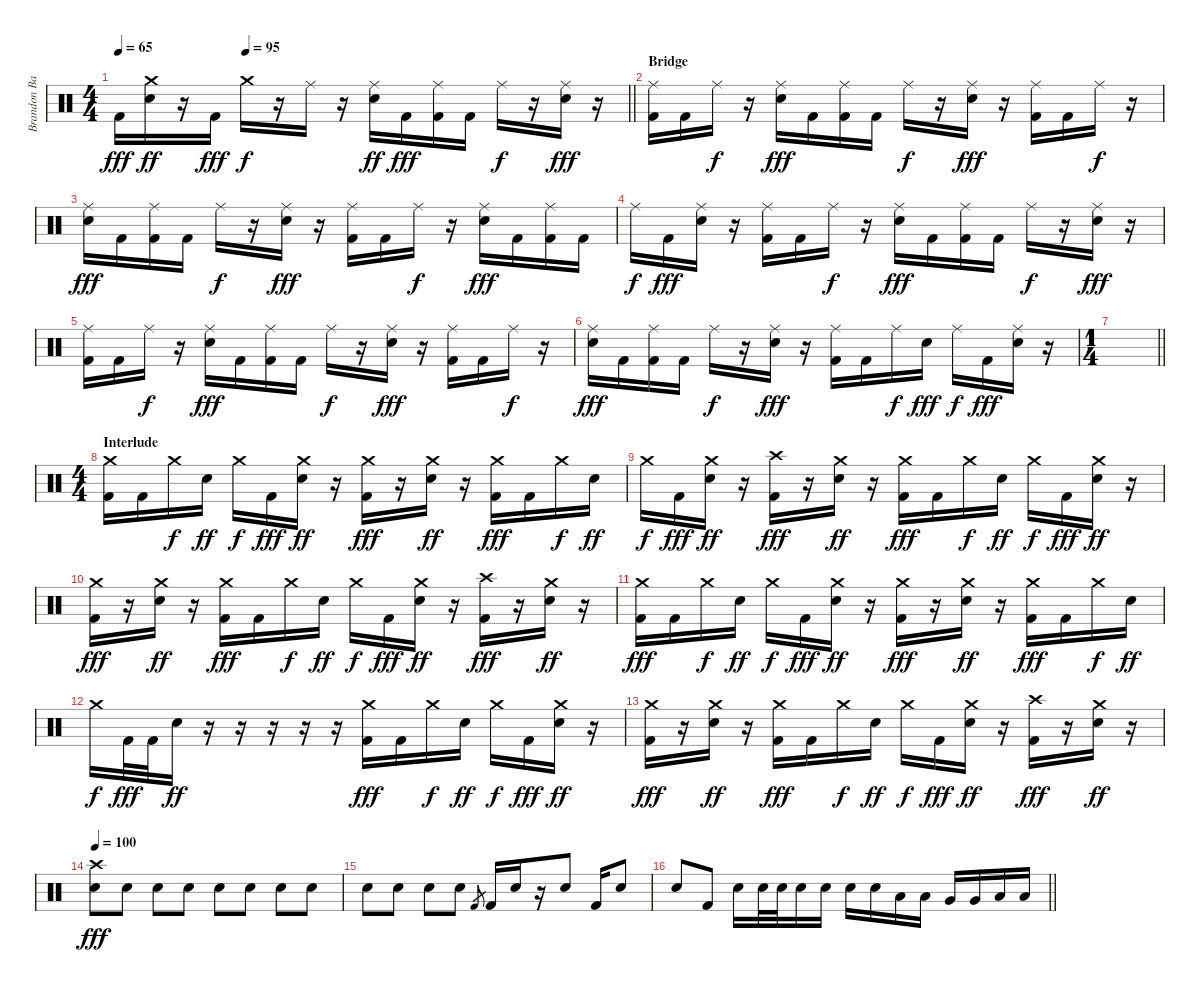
\track ("Brandon Barnes" "Brandon Ba") {instrument percussion}
\staff {score}
\articulation defaults
\ts (4 4)
\tempo 65
\tempo (95 0.25)
\clef neutral
\barLineRight lightlight
\ks c "Kick (hit) 2".16{dy fff}
("Crash medium (hit)" "Electric Snare (hit)").16{dy ff} r.16 "Kick (hit) 2".16{dy fff} "Crash medium (hit)".16{dy f} r.16 "Ride (middle)".16 r.16 ("Ride (middle)" "Electric Snare (hit)").16{dy ff} "Kick (hit) 2".16{dy fff} ("Ride (middle)" "Kick (hit) 2").16 "Kick (hit) 2".16 "Ride (middle)".16{dy f} r.16 ("Ride (middle)" "Electric Snare (hit)").16{dy fff} r.16 |
\section ("" "Bridge")
("Ride (middle)" "Kick (hit) 2").16 "Kick (hit) 2".16 "Ride (middle)".16{dy f} r.16 ("Ride (middle)" "Electric Snare (hit)").16{dy fff} "Kick (hit) 2".16 ("Ride (middle)" "Kick (hit) 2").16 "Kick (hit) 2".16 "Ride (middle)".16{dy f} r.16 ("Ride (middle)" "Electric Snare (hit)").16{dy fff} r.16 ("Ride (middle)" "Kick (hit) 2").16 "Kick (hit) 2".16 "Ride (middle)".16{dy f} r.16 |
("Ride (middle)" "Electric Snare (hit)").16{dy fff} "Kick (hit) 2".16 ("Ride (middle)" "Kick (hit) 2").16 "Kick (hit) 2".16 "Ride (middle)".16{dy f} r.16 ("Ride (middle)" "Electric Snare (hit)").16{dy fff} r.16 ("Ride (middle)" "Kick (hit) 2").16 "Kick (hit) 2".16 "Ride (middle)".16{dy f} r.16 ("Ride (middle)" "Electric Snare (hit)").16{dy fff} "Kick (hit) 2".16 ("Ride (middle)" "Kick (hit) 2").16 "Kick (hit) 2".16 |
"Ride (middle)".16{dy f} "Kick (hit) 2".16{dy fff} ("Ride (middle)" "Electric Snare (hit)").16 r.16 ("Ride (middle)" "Kick (hit) 2").16 "Kick (hit) 2".16 "Ride (middle)".16{dy f} r.16 ("Ride (middle)" "Electric Snare (hit)").16{dy fff} "Kick (hit) 2".16 ("Ride (middle)" "Kick (hit) 2").16 "Kick (hit) 2".16 "Ride (middle)".16{dy f} r.16 ("Ride (middle)" "Electric Snare (hit)").16{dy fff} r.16 |
("Ride (middle)" "Kick (hit) 2").16 "Kick (hit) 2".16 "Ride (middle)".16{dy f} r.16 ("Ride (middle)" "Electric Snare (hit)").16{dy fff} "Kick (hit) 2".16 ("Ride (middle)" "Kick (hit) 2").16 "Kick (hit) 2".16 "Ride (middle)".16{dy f} r.16 ("Ride (middle)" "Electric Snare (hit)").16{dy fff} r.16 ("Ride (middle)" "Kick (hit) 2").16 "Kick (hit) 2".16 "Ride (middle)".16{dy f} r.16 |
("Ride (middle)" "Electric Snare (hit)").16{dy fff} "Kick (hit) 2".16 ("Ride (middle)" "Kick (hit) 2").16 "Kick (hit) 2".16 "Ride (middle)".16{dy f} r.16 ("Ride (middle)" "Electric Snare (hit)").16{dy fff} r.16 ("Ride (middle)" "Kick (hit) 2").16 "Kick (hit) 2".16 "Ride (middle)".16{dy f} "Electric Snare (hit)".16{dy fff} "Ride (middle)".16{dy f} "Kick (hit) 2".16{dy fff} ("Ride (middle)" "Electric Snare (hit)").16 r.16 |
\ts (1 4)
\barLineRight lightlight
|
\ts (4 4)
\section ("" "Interlude")
("Crash medium (hit)" "Kick (hit) 2").16 "Kick (hit) 2".16 "Crash medium (hit)".16{dy f} "Electric Snare (hit)".16{dy ff} "Crash medium (hit)".16{dy f} "Kick (hit) 2".16{dy fff} ("Crash medium (hit)" "Electric Snare (hit)").16{dy ff} r.16 ("Crash medium (hit)" "Kick (hit) 2").16{dy fff} r.16 ("Crash medium (hit)" "Electric Snare (hit)").16{dy ff} r.16 ("Crash medium (hit)" "Kick (hit) 2").16{dy fff} "Kick (hit) 2".16 "Crash medium (hit)".16{dy f} "Electric Snare (hit)".16{dy ff} |
"Crash medium (hit)".16{dy f} "Kick (hit) 2".16{dy fff} ("Crash medium (hit)" "Electric Snare (hit)").16{dy ff} r.16 ("Crash high (hit)" "Kick (hit) 2").16{dy fff} r.16 ("Crash medium (hit)" "Electric Snare (hit)").16{dy ff} r.16 ("Crash medium (hit)" "Kick (hit) 2").16{dy fff} "Kick (hit) 2".16 "Crash medium (hit)".16{dy f} "Electric Snare (hit)".16{dy ff} "Crash medium (hit)".16{dy f} "Kick (hit) 2".16{dy fff} ("Crash medium (hit)" "Electric Snare (hit)").16{dy ff} r.16 |
("Crash medium (hit)" "Kick (hit) 2").16{dy fff} r.16 ("Crash medium (hit)" "Electric Snare (hit)").16{dy ff} r.16 ("Crash medium (hit)" "Kick (hit) 2").16{dy fff} "Kick (hit) 2".16 "Crash medium (hit)".16{dy f} "Electric Snare (hit)".16{dy ff} "Crash medium (hit)".16{dy f} "Kick (hit) 2".16{dy fff} ("Crash medium (hit)" "Electric Snare (hit)").16{dy ff} r.16 ("Crash high (hit)" "Kick (hit) 2").16{dy fff} r.16 ("Crash medium (hit)" "Electric Snare (hit)").16{dy ff} r.16 |
("Crash medium (hit)" "Kick (hit) 2").16{dy fff} "Kick (hit) 2".16 "Crash medium (hit)".16{dy f} "Electric Snare (hit)".16{dy ff} "Crash medium (hit)".16{dy f} "Kick (hit) 2".16{dy fff} ("Crash medium (hit)" "Electric Snare (hit)").16{dy ff} r.16 ("Crash medium (hit)" "Kick (hit) 2").16{dy fff} r.16 ("Crash medium (hit)" "Electric Snare (hit)").16{dy ff} r.16 ("Crash medium (hit)" "Kick (hit) 2").16{dy fff} "Kick (hit) 2".16 "Crash medium (hit)".16{dy f} "Electric Snare (hit)".16{dy ff} |
"Crash medium (hit)".16{dy f} "Kick (hit) 2".32{dy fff} "Kick (hit) 2".32 "Electric Snare (hit)".16{dy ff} r.16 r.16 r.16 r.16 r.16 ("Crash medium (hit)" "Kick (hit) 2").16{dy fff} "Kick (hit) 2".16 "Crash medium (hit)".16{dy f} "Electric Snare (hit)".16{dy ff} "Crash medium (hit)".16{dy f} "Kick (hit) 2".16{dy fff} ("Crash medium (hit)" "Electric Snare (hit)").16{dy ff} r.16 |
("Crash medium (hit)" "Kick (hit) 2").16{dy fff} r.16 ("Crash medium (hit)" "Electric Snare (hit)").16{dy ff} r.16 ("Crash medium (hit)" "Kick (hit) 2").16{dy fff} "Kick (hit) 2".16 "Crash medium (hit)".16{dy f} "Electric Snare (hit)".16{dy ff} "Crash medium (hit)".16{dy f} "Kick (hit) 2".16{dy fff} ("Crash medium (hit)" "Electric Snare (hit)").16{dy ff} r.16 ("Crash high (hit)" "Kick (hit) 2").16{dy fff} r.16 ("Crash medium (hit)" "Electric Snare (hit)").16{dy ff} r.16 |
\tempo 100
("Crash high (hit)" "Electric Snare (hit)").8{dy fff} "Electric Snare (hit)".8 "Electric Snare (hit)".8 "Electric Snare (hit)".8 "Electric Snare (hit)".8 "Electric Snare (hit)".8 "Electric Snare (hit)".8 "Electric Snare (hit)".8 |
"Electric Snare (hit)".8 "Electric Snare (hit)".8 "Electric Snare (hit)".8 "Electric Snare (hit)".8 "Kick (hit) 2".8{gr} "Kick (hit) 2".16 "Electric Snare (hit)".16 r.16 "Electric Snare (hit)".8 "Kick (hit) 2".16 "Electric Snare (hit)".8 |
\barLineRight lightlight "Electric Snare (hit)".8 "Kick (hit) 2".8 "Electric Snare (hit)".16 "Electric Snare (hit)".32 "Electric Snare (hit)".32 "Electric Snare (hit)".16 "Electric Snare (hit)".16 "Electric Snare (hit)".16 "Electric Snare (hit)".16 "Low Tom (hit)".16 "Low Tom (hit)".16 "Very Low Tom (hit)".16 "Very Low Tom (hit)".16 "Low Floor Tom (hit)".16 "Low Floor Tom (hit)".16
